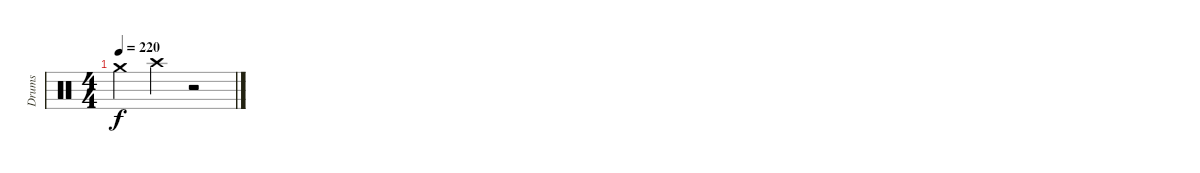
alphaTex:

\track ("Drums" "Drums") {instrument percussion}
\staff {score}
\articulation defaults
\ts (4 4)
\tempo 220
\clef neutral
\ks c "Crash medium (hit)".4{dy f} "Crash high (hit)".4
r.2
